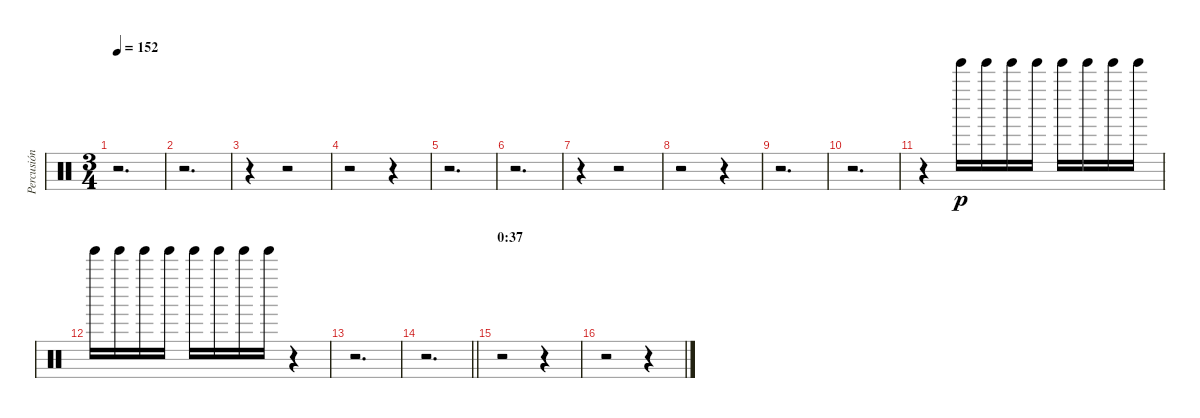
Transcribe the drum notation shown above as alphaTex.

\track ("Percusión" "Percusión") {instrument percussion}
\staff {score}
\articulation defaults
\ts (3 4)
\tempo 152
\clef neutral
\ks c
r.2{d dy p} |
r.2{d} |
r.4 r.2 |
r.2 r.4 |
r.2{d} |
r.2{d} |
r.4 r.2 |
r.2 r.4 |
r.2{d} |
r.2{d} |
r.4 "Tinkle Bell (hit)".16 "Tinkle Bell (hit)".16 "Tinkle Bell (hit)".16 "Tinkle Bell (hit)".16 "Tinkle Bell (hit)".16 "Tinkle Bell (hit)".16 "Tinkle Bell (hit)".16 "Tinkle Bell (hit)".16 |
"Tinkle Bell (hit)".16 "Tinkle Bell (hit)".16 "Tinkle Bell (hit)".16 "Tinkle Bell (hit)".16 "Tinkle Bell (hit)".16 "Tinkle Bell (hit)".16 "Tinkle Bell (hit)".16 "Tinkle Bell (hit)".16 r.4 |
r.2{d} |
\barLineRight lightlight
r.2{d} |
\section ("" "0:37")
r.2 r.4 |
r.2 r.4
